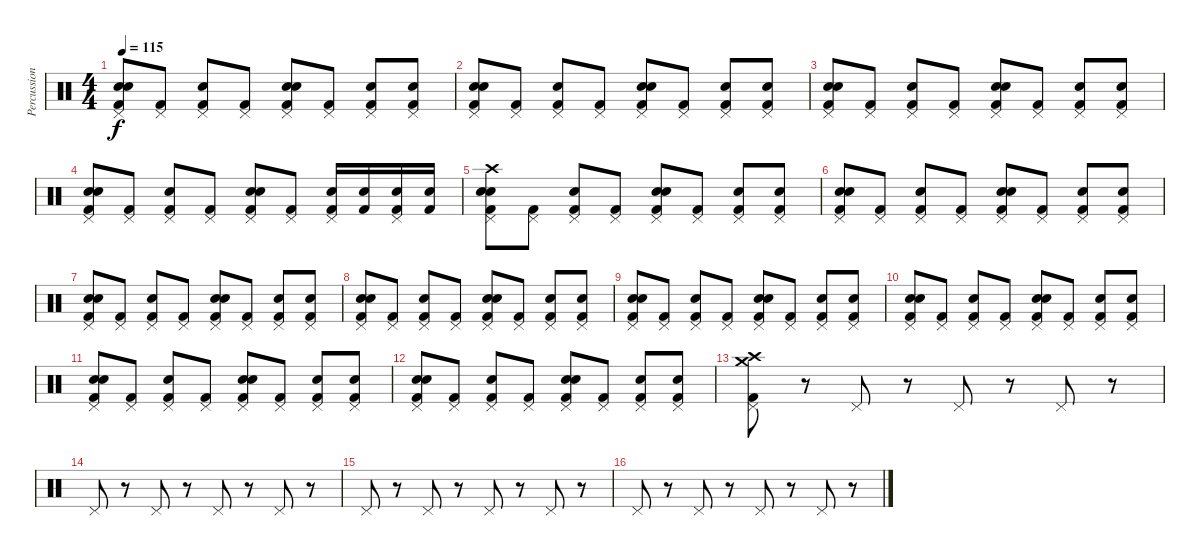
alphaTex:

\track ("Percussions" "Percussion") {instrument percussion}
\staff {score}
\articulation defaults
\ts (4 4)
\tempo 115
\clef neutral
\ks c
("Hand Clap (hit)" "Pedal Hi-Hat (hit)" "Snare (hit) 2" "Kick (hit) 2").8{dy f} ("Pedal Hi-Hat (hit)" "Kick (hit) 2").8 ("Pedal Hi-Hat (hit)" "Snare (hit) 2" "Kick (hit) 2").8 ("Pedal Hi-Hat (hit)" "Kick (hit) 2").8 ("Hand Clap (hit)" "Pedal Hi-Hat (hit)" "Snare (hit) 2" "Kick (hit) 2").8 ("Pedal Hi-Hat (hit)" "Kick (hit) 2").8 ("Pedal Hi-Hat (hit)" "Snare (hit) 2" "Kick (hit) 2").8 ("Pedal Hi-Hat (hit)" "Snare (hit) 2" "Kick (hit) 2").8 |
("Hand Clap (hit)" "Pedal Hi-Hat (hit)" "Snare (hit) 2" "Kick (hit) 2").8 ("Pedal Hi-Hat (hit)" "Kick (hit) 2").8 ("Pedal Hi-Hat (hit)" "Snare (hit) 2" "Kick (hit) 2").8 ("Pedal Hi-Hat (hit)" "Kick (hit) 2").8 ("Hand Clap (hit)" "Pedal Hi-Hat (hit)" "Snare (hit) 2" "Kick (hit) 2").8 ("Pedal Hi-Hat (hit)" "Kick (hit) 2").8 ("Pedal Hi-Hat (hit)" "Snare (hit) 2" "Kick (hit) 2").8 ("Pedal Hi-Hat (hit)" "Snare (hit) 2" "Kick (hit) 2").8 |
("Hand Clap (hit)" "Pedal Hi-Hat (hit)" "Snare (hit) 2" "Kick (hit) 2").8 ("Pedal Hi-Hat (hit)" "Kick (hit) 2").8 ("Pedal Hi-Hat (hit)" "Snare (hit) 2" "Kick (hit) 2").8 ("Pedal Hi-Hat (hit)" "Kick (hit) 2").8 ("Hand Clap (hit)" "Pedal Hi-Hat (hit)" "Snare (hit) 2" "Kick (hit) 2").8 ("Pedal Hi-Hat (hit)" "Kick (hit) 2").8 ("Pedal Hi-Hat (hit)" "Snare (hit) 2" "Kick (hit) 2").8 ("Pedal Hi-Hat (hit)" "Snare (hit) 2" "Kick (hit) 2").8 |
("Hand Clap (hit)" "Pedal Hi-Hat (hit)" "Snare (hit) 2" "Kick (hit) 2").8 ("Pedal Hi-Hat (hit)" "Kick (hit) 2").8 ("Pedal Hi-Hat (hit)" "Snare (hit) 2" "Kick (hit) 2").8 ("Pedal Hi-Hat (hit)" "Kick (hit) 2").8 ("Hand Clap (hit)" "Pedal Hi-Hat (hit)" "Snare (hit) 2" "Kick (hit) 2").8 ("Pedal Hi-Hat (hit)" "Kick (hit) 2").8 ("Pedal Hi-Hat (hit)" "Snare (hit) 2" "Kick (hit) 2").16 ("Snare (hit) 2" "Kick (hit) 2").16 ("Pedal Hi-Hat (hit)" "Snare (hit) 2" "Kick (hit) 2").16 ("Snare (hit) 2" "Kick (hit) 2").16 |
("Crash high (hit)" "Hand Clap (hit)" "Pedal Hi-Hat (hit)" "Snare (hit) 2" "Kick (hit) 2").8 ("Pedal Hi-Hat (hit)" "Kick (hit) 2").8 ("Pedal Hi-Hat (hit)" "Snare (hit) 2" "Kick (hit) 2").8 ("Pedal Hi-Hat (hit)" "Kick (hit) 2").8 ("Hand Clap (hit)" "Pedal Hi-Hat (hit)" "Snare (hit) 2" "Kick (hit) 2").8 ("Pedal Hi-Hat (hit)" "Kick (hit) 2").8 ("Pedal Hi-Hat (hit)" "Snare (hit) 2" "Kick (hit) 2").8 ("Pedal Hi-Hat (hit)" "Snare (hit) 2" "Kick (hit) 2").8 |
("Hand Clap (hit)" "Pedal Hi-Hat (hit)" "Snare (hit) 2" "Kick (hit) 2").8 ("Pedal Hi-Hat (hit)" "Kick (hit) 2").8 ("Pedal Hi-Hat (hit)" "Snare (hit) 2" "Kick (hit) 2").8 ("Pedal Hi-Hat (hit)" "Kick (hit) 2").8 ("Hand Clap (hit)" "Pedal Hi-Hat (hit)" "Snare (hit) 2" "Kick (hit) 2").8 ("Pedal Hi-Hat (hit)" "Kick (hit) 2").8 ("Pedal Hi-Hat (hit)" "Snare (hit) 2" "Kick (hit) 2").8 ("Pedal Hi-Hat (hit)" "Snare (hit) 2" "Kick (hit) 2").8 |
("Hand Clap (hit)" "Pedal Hi-Hat (hit)" "Snare (hit) 2" "Kick (hit) 2").8 ("Pedal Hi-Hat (hit)" "Kick (hit) 2").8 ("Pedal Hi-Hat (hit)" "Snare (hit) 2" "Kick (hit) 2").8 ("Pedal Hi-Hat (hit)" "Kick (hit) 2").8 ("Hand Clap (hit)" "Pedal Hi-Hat (hit)" "Snare (hit) 2" "Kick (hit) 2").8 ("Pedal Hi-Hat (hit)" "Kick (hit) 2").8 ("Pedal Hi-Hat (hit)" "Snare (hit) 2" "Kick (hit) 2").8 ("Pedal Hi-Hat (hit)" "Snare (hit) 2" "Kick (hit) 2").8 |
("Hand Clap (hit)" "Pedal Hi-Hat (hit)" "Snare (hit) 2" "Kick (hit) 2").8 ("Pedal Hi-Hat (hit)" "Kick (hit) 2").8 ("Pedal Hi-Hat (hit)" "Snare (hit) 2" "Kick (hit) 2").8 ("Pedal Hi-Hat (hit)" "Kick (hit) 2").8 ("Hand Clap (hit)" "Pedal Hi-Hat (hit)" "Snare (hit) 2" "Kick (hit) 2").8 ("Pedal Hi-Hat (hit)" "Kick (hit) 2").8 ("Pedal Hi-Hat (hit)" "Snare (hit) 2" "Kick (hit) 2").8 ("Pedal Hi-Hat (hit)" "Snare (hit) 2" "Kick (hit) 2").8 |
("Hand Clap (hit)" "Pedal Hi-Hat (hit)" "Snare (hit) 2" "Kick (hit) 2").8 ("Pedal Hi-Hat (hit)" "Kick (hit) 2").8 ("Pedal Hi-Hat (hit)" "Snare (hit) 2" "Kick (hit) 2").8 ("Pedal Hi-Hat (hit)" "Kick (hit) 2").8 ("Hand Clap (hit)" "Pedal Hi-Hat (hit)" "Snare (hit) 2" "Kick (hit) 2").8 ("Pedal Hi-Hat (hit)" "Kick (hit) 2").8 ("Pedal Hi-Hat (hit)" "Snare (hit) 2" "Kick (hit) 2").8 ("Pedal Hi-Hat (hit)" "Snare (hit) 2" "Kick (hit) 2").8 |
("Hand Clap (hit)" "Pedal Hi-Hat (hit)" "Snare (hit) 2" "Kick (hit) 2").8 ("Pedal Hi-Hat (hit)" "Kick (hit) 2").8 ("Pedal Hi-Hat (hit)" "Snare (hit) 2" "Kick (hit) 2").8 ("Pedal Hi-Hat (hit)" "Kick (hit) 2").8 ("Hand Clap (hit)" "Pedal Hi-Hat (hit)" "Snare (hit) 2" "Kick (hit) 2").8 ("Pedal Hi-Hat (hit)" "Kick (hit) 2").8 ("Pedal Hi-Hat (hit)" "Snare (hit) 2" "Kick (hit) 2").8 ("Pedal Hi-Hat (hit)" "Snare (hit) 2" "Kick (hit) 2").8 |
("Hand Clap (hit)" "Pedal Hi-Hat (hit)" "Snare (hit) 2" "Kick (hit) 2").8 ("Pedal Hi-Hat (hit)" "Kick (hit) 2").8 ("Pedal Hi-Hat (hit)" "Snare (hit) 2" "Kick (hit) 2").8 ("Pedal Hi-Hat (hit)" "Kick (hit) 2").8 ("Hand Clap (hit)" "Pedal Hi-Hat (hit)" "Snare (hit) 2" "Kick (hit) 2").8 ("Pedal Hi-Hat (hit)" "Kick (hit) 2").8 ("Pedal Hi-Hat (hit)" "Snare (hit) 2" "Kick (hit) 2").8 ("Pedal Hi-Hat (hit)" "Snare (hit) 2" "Kick (hit) 2").8 |
("Hand Clap (hit)" "Pedal Hi-Hat (hit)" "Snare (hit) 2" "Kick (hit) 2").8 ("Pedal Hi-Hat (hit)" "Kick (hit) 2").8 ("Pedal Hi-Hat (hit)" "Snare (hit) 2" "Kick (hit) 2").8 ("Pedal Hi-Hat (hit)" "Kick (hit) 2").8 ("Hand Clap (hit)" "Pedal Hi-Hat (hit)" "Snare (hit) 2" "Kick (hit) 2").8 ("Pedal Hi-Hat (hit)" "Kick (hit) 2").8 ("Pedal Hi-Hat (hit)" "Snare (hit) 2" "Kick (hit) 2").8 ("Pedal Hi-Hat (hit)" "Snare (hit) 2" "Kick (hit) 2").8 |
("Crash high (hit)" "Pedal Hi-Hat (hit)" "Kick (hit) 2" "Crash medium (hit)").8 r.8 "Pedal Hi-Hat (hit)".8 r.8 "Pedal Hi-Hat (hit)".8 r.8 "Pedal Hi-Hat (hit)".8 r.8 |
"Pedal Hi-Hat (hit)".8 r.8 "Pedal Hi-Hat (hit)".8 r.8 "Pedal Hi-Hat (hit)".8 r.8 "Pedal Hi-Hat (hit)".8 r.8 |
"Pedal Hi-Hat (hit)".8 r.8 "Pedal Hi-Hat (hit)".8 r.8 "Pedal Hi-Hat (hit)".8 r.8 "Pedal Hi-Hat (hit)".8 r.8 |
"Pedal Hi-Hat (hit)".8 r.8 "Pedal Hi-Hat (hit)".8 r.8 "Pedal Hi-Hat (hit)".8 r.8 "Pedal Hi-Hat (hit)".8 r.8
